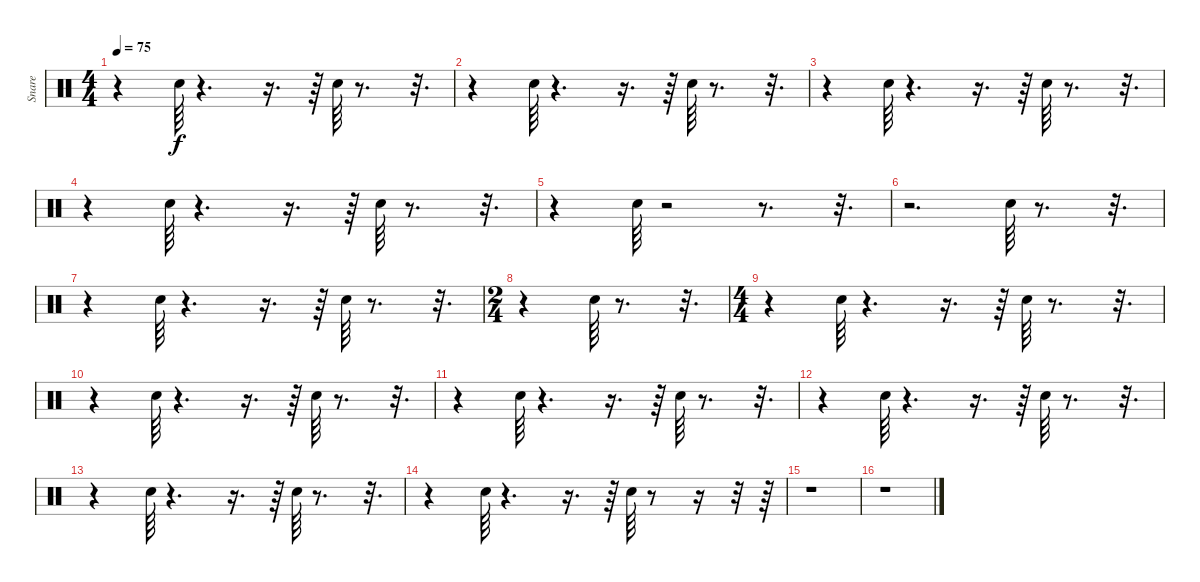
\track ("Snare" "Snare") {instrument percussion}
\staff {score}
\articulation defaults
\ts (4 4)
\tempo 75
\clef neutral
\ks c
r.4{dy f} "Electric Snare (hit)".64 r.4{d} r.16{d} r.64 "Electric Snare (hit)".64 r.8{d} r.32{d} |
r.4 "Electric Snare (hit)".64 r.4{d} r.16{d} r.64 "Electric Snare (hit)".64 r.8{d} r.32{d} |
r.4 "Electric Snare (hit)".64 r.4{d} r.16{d} r.64 "Electric Snare (hit)".64 r.8{d} r.32{d} |
r.4 "Electric Snare (hit)".64 r.4{d} r.16{d} r.64 "Electric Snare (hit)".64 r.8{d} r.32{d} |
r.4 "Electric Snare (hit)".64 r.2 r.8{d} r.32{d} |
r.2{d} "Electric Snare (hit)".64 r.8{d} r.32{d} |
r.4 "Electric Snare (hit)".64 r.4{d} r.16{d} r.64 "Electric Snare (hit)".64 r.8{d} r.32{d} |
\ts (2 4)
r.4 "Electric Snare (hit)".64 r.8{d} r.32{d} |
\ts (4 4)
r.4 "Electric Snare (hit)".64 r.4{d} r.16{d} r.64 "Electric Snare (hit)".64 r.8{d} r.32{d} |
r.4 "Electric Snare (hit)".64 r.4{d} r.16{d} r.64 "Electric Snare (hit)".64 r.8{d} r.32{d} |
r.4 "Electric Snare (hit)".64 r.4{d} r.16{d} r.64 "Electric Snare (hit)".64 r.8{d} r.32{d} |
r.4 "Electric Snare (hit)".64 r.4{d} r.16{d} r.64 "Electric Snare (hit)".64 r.8{d} r.32{d} |
r.4 "Electric Snare (hit)".64 r.4{d} r.16{d} r.64 "Electric Snare (hit)".64 r.8{d} r.32{d} |
r.4 "Electric Snare (hit)".64 r.4{d} r.16{d} r.64 "Electric Snare (hit)".64 r.8 r.16 r.32 r.64 |
r.1 |
r.1
